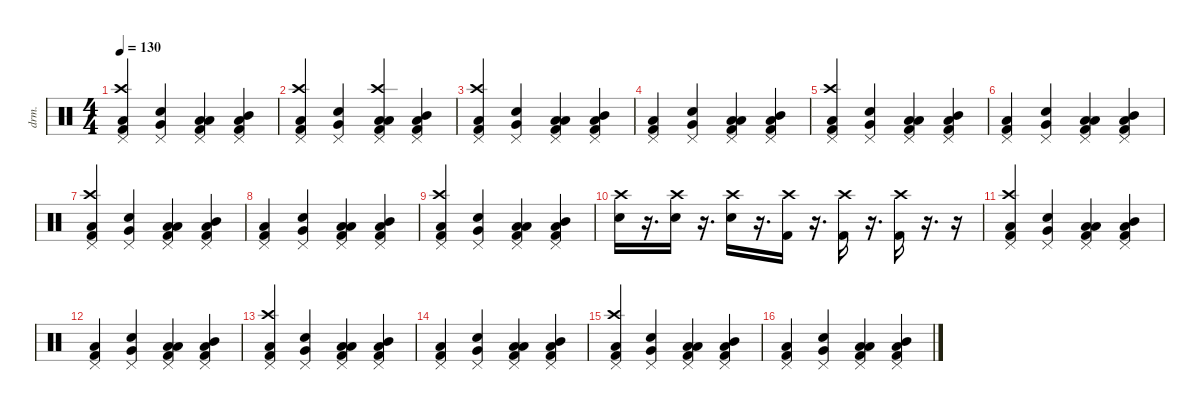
\defaultSystemsLayout 4
\hideDynamics
\bracketExtendMode nobrackets
\otherSystemsTrackNameOrientation horizontal
\track ("Percussion" "drm.") {instrument percussion}
\staff {score}
\articulation defaults
\ts (4 4)
\tempo 130
\clef neutral
\ks c
("Pedal Hi-Hat (hit)" "Crash high (hit)" "Kick (hit) 2" "Low Floor Tom (hit)").4{dy f} ("Pedal Hi-Hat (hit)" "Very Low Tom (hit)" "Snare (hit) 2").4 ("Pedal Hi-Hat (hit)" "Low Floor Tom (hit)" "Kick (hit) 2" "Low Tom (hit)").4 ("Pedal Hi-Hat (hit)" "Low Tom (hit)" "Kick (hit) 2" "Mid Tom (hit)").4 |
("Pedal Hi-Hat (hit)" "Crash high (hit)" "Kick (hit) 2" "Low Floor Tom (hit)").4 ("Pedal Hi-Hat (hit)" "Very Low Tom (hit)" "Snare (hit) 2").4 ("Pedal Hi-Hat (hit)" "Crash high (hit)" "Low Floor Tom (hit)" "Kick (hit) 2" "Low Tom (hit)").4 ("Pedal Hi-Hat (hit)" "Low Tom (hit)" "Kick (hit) 2" "Mid Tom (hit)").4 |
("Pedal Hi-Hat (hit)" "Crash high (hit)" "Kick (hit) 2" "Low Floor Tom (hit)").4 ("Pedal Hi-Hat (hit)" "Very Low Tom (hit)" "Snare (hit) 2").4 ("Pedal Hi-Hat (hit)" "Low Floor Tom (hit)" "Kick (hit) 2" "Low Tom (hit)").4 ("Pedal Hi-Hat (hit)" "Low Tom (hit)" "Kick (hit) 2" "Mid Tom (hit)").4 |
("Pedal Hi-Hat (hit)" "Kick (hit) 2" "Low Floor Tom (hit)").4 ("Pedal Hi-Hat (hit)" "Very Low Tom (hit)" "Snare (hit) 2").4 ("Pedal Hi-Hat (hit)" "Low Floor Tom (hit)" "Kick (hit) 2" "Low Tom (hit)").4 ("Pedal Hi-Hat (hit)" "Low Tom (hit)" "Kick (hit) 2" "Mid Tom (hit)").4 |
("Pedal Hi-Hat (hit)" "Crash high (hit)" "Kick (hit) 2" "Low Floor Tom (hit)").4 ("Pedal Hi-Hat (hit)" "Very Low Tom (hit)" "Snare (hit) 2").4 ("Pedal Hi-Hat (hit)" "Low Floor Tom (hit)" "Kick (hit) 2" "Low Tom (hit)").4 ("Pedal Hi-Hat (hit)" "Low Tom (hit)" "Kick (hit) 2" "Mid Tom (hit)").4 |
("Pedal Hi-Hat (hit)" "Kick (hit) 2" "Low Floor Tom (hit)").4 ("Pedal Hi-Hat (hit)" "Very Low Tom (hit)" "Snare (hit) 2").4 ("Pedal Hi-Hat (hit)" "Low Floor Tom (hit)" "Kick (hit) 2" "Low Tom (hit)").4 ("Pedal Hi-Hat (hit)" "Low Tom (hit)" "Kick (hit) 2" "Mid Tom (hit)").4 |
("Pedal Hi-Hat (hit)" "Crash high (hit)" "Kick (hit) 2" "Low Floor Tom (hit)").4 ("Pedal Hi-Hat (hit)" "Very Low Tom (hit)" "Snare (hit) 2").4 ("Pedal Hi-Hat (hit)" "Low Floor Tom (hit)" "Kick (hit) 2" "Low Tom (hit)").4 ("Pedal Hi-Hat (hit)" "Low Tom (hit)" "Kick (hit) 2" "Mid Tom (hit)").4 |
("Pedal Hi-Hat (hit)" "Kick (hit) 2" "Low Floor Tom (hit)").4 ("Pedal Hi-Hat (hit)" "Very Low Tom (hit)" "Snare (hit) 2").4 ("Pedal Hi-Hat (hit)" "Low Floor Tom (hit)" "Kick (hit) 2" "Low Tom (hit)").4 ("Pedal Hi-Hat (hit)" "Low Tom (hit)" "Kick (hit) 2" "Mid Tom (hit)").4 |
("Pedal Hi-Hat (hit)" "Crash high (hit)" "Kick (hit) 2" "Low Floor Tom (hit)").4 ("Pedal Hi-Hat (hit)" "Very Low Tom (hit)" "Snare (hit) 2").4 ("Pedal Hi-Hat (hit)" "Low Floor Tom (hit)" "Kick (hit) 2" "Low Tom (hit)").4 ("Pedal Hi-Hat (hit)" "Low Tom (hit)" "Kick (hit) 2" "Mid Tom (hit)").4 |
("Snare (hit) 2" "Crash high (hit)").16 r.16{d} ("Snare (hit) 2" "Crash high (hit)").16 r.16{d} ("Snare (hit) 2" "Crash high (hit)").16 r.16{d} ("Kick (hit) 2" "Crash high (hit)").16 r.16{d} ("Kick (hit) 2" "Crash high (hit)").16 r.16{d} ("Kick (hit) 2" "Crash high (hit)").16 r.16{d} r.16 |
("Pedal Hi-Hat (hit)" "Crash high (hit)" "Kick (hit) 2" "Low Floor Tom (hit)").4 ("Pedal Hi-Hat (hit)" "Very Low Tom (hit)" "Snare (hit) 2").4 ("Pedal Hi-Hat (hit)" "Low Floor Tom (hit)" "Kick (hit) 2" "Low Tom (hit)").4 ("Pedal Hi-Hat (hit)" "Low Tom (hit)" "Kick (hit) 2" "Mid Tom (hit)").4 |
("Pedal Hi-Hat (hit)" "Kick (hit) 2" "Low Floor Tom (hit)").4 ("Pedal Hi-Hat (hit)" "Very Low Tom (hit)" "Snare (hit) 2").4 ("Pedal Hi-Hat (hit)" "Low Floor Tom (hit)" "Kick (hit) 2" "Low Tom (hit)").4 ("Pedal Hi-Hat (hit)" "Low Tom (hit)" "Kick (hit) 2" "Mid Tom (hit)").4 |
("Pedal Hi-Hat (hit)" "Crash high (hit)" "Kick (hit) 2" "Low Floor Tom (hit)").4 ("Pedal Hi-Hat (hit)" "Very Low Tom (hit)" "Snare (hit) 2").4 ("Pedal Hi-Hat (hit)" "Low Floor Tom (hit)" "Kick (hit) 2" "Low Tom (hit)").4 ("Pedal Hi-Hat (hit)" "Low Tom (hit)" "Kick (hit) 2" "Mid Tom (hit)").4 |
("Pedal Hi-Hat (hit)" "Kick (hit) 2" "Low Floor Tom (hit)").4 ("Pedal Hi-Hat (hit)" "Very Low Tom (hit)" "Snare (hit) 2").4 ("Pedal Hi-Hat (hit)" "Low Floor Tom (hit)" "Kick (hit) 2" "Low Tom (hit)").4 ("Pedal Hi-Hat (hit)" "Low Tom (hit)" "Kick (hit) 2" "Mid Tom (hit)").4 |
("Pedal Hi-Hat (hit)" "Crash high (hit)" "Kick (hit) 2" "Low Floor Tom (hit)").4 ("Pedal Hi-Hat (hit)" "Very Low Tom (hit)" "Snare (hit) 2").4 ("Pedal Hi-Hat (hit)" "Low Floor Tom (hit)" "Kick (hit) 2" "Low Tom (hit)").4 ("Pedal Hi-Hat (hit)" "Low Tom (hit)" "Kick (hit) 2" "Mid Tom (hit)").4 |
("Pedal Hi-Hat (hit)" "Kick (hit) 2" "Low Floor Tom (hit)").4 ("Pedal Hi-Hat (hit)" "Very Low Tom (hit)" "Snare (hit) 2").4 ("Pedal Hi-Hat (hit)" "Low Floor Tom (hit)" "Kick (hit) 2" "Low Tom (hit)").4 ("Pedal Hi-Hat (hit)" "Low Tom (hit)" "Kick (hit) 2" "Mid Tom (hit)").4
